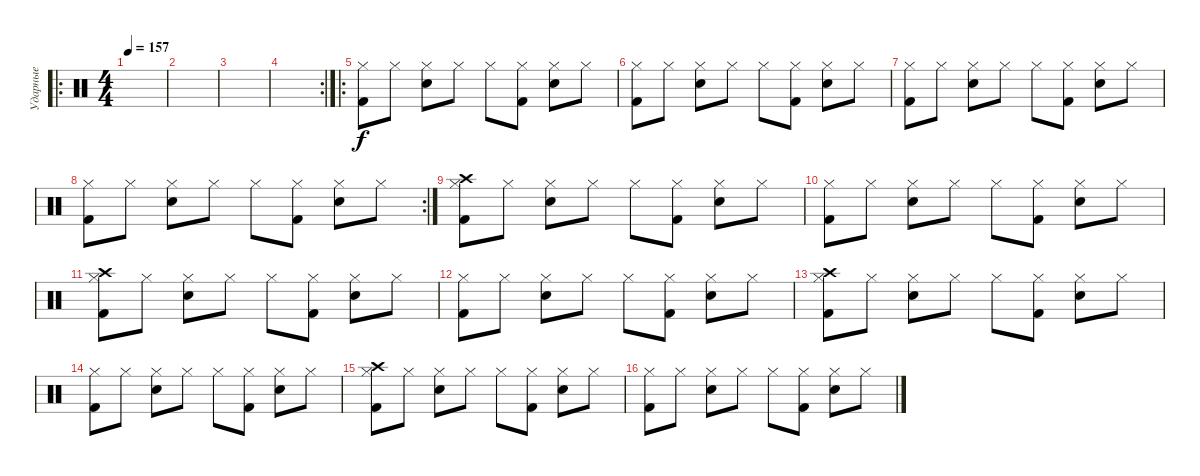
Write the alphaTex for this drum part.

\track ("Ударные" "Ударные") {instrument percussion}
\staff {score}
\articulation defaults
\ro
\ts (4 4)
\tempo 157
\clef neutral
\ks c
|
|
|
\rc 2
|
\ro
("Hi-Hat (closed)" "Kick (hit) 2").8 "Hi-Hat (closed)".8 ("Hi-Hat (closed)" "Electric Snare (hit)").8 "Hi-Hat (closed)".8 "Hi-Hat (closed)".8 ("Hi-Hat (closed)" "Kick (hit) 2").8 ("Hi-Hat (closed)" "Electric Snare (hit)").8 "Hi-Hat (closed)".8 |
("Hi-Hat (closed)" "Kick (hit) 2").8 "Hi-Hat (closed)".8 ("Hi-Hat (closed)" "Electric Snare (hit)").8 "Hi-Hat (closed)".8 "Hi-Hat (closed)".8 ("Hi-Hat (closed)" "Kick (hit) 2").8 ("Hi-Hat (closed)" "Electric Snare (hit)").8 "Hi-Hat (closed)".8 |
("Hi-Hat (closed)" "Kick (hit) 2").8 "Hi-Hat (closed)".8 ("Hi-Hat (closed)" "Electric Snare (hit)").8 "Hi-Hat (closed)".8 "Hi-Hat (closed)".8 ("Hi-Hat (closed)" "Kick (hit) 2").8 ("Hi-Hat (closed)" "Electric Snare (hit)").8 "Hi-Hat (closed)".8 |
\rc 2
("Hi-Hat (closed)" "Kick (hit) 2").8 "Hi-Hat (closed)".8 ("Hi-Hat (closed)" "Electric Snare (hit)").8 "Hi-Hat (closed)".8 "Hi-Hat (closed)".8 ("Hi-Hat (closed)" "Kick (hit) 2").8 ("Hi-Hat (closed)" "Electric Snare (hit)").8 "Hi-Hat (closed)".8 |
("Hi-Hat (closed)" "Crash high (hit)" "Kick (hit) 2").8 "Hi-Hat (closed)".8 ("Hi-Hat (closed)" "Electric Snare (hit)").8 "Hi-Hat (closed)".8 "Hi-Hat (closed)".8 ("Hi-Hat (closed)" "Kick (hit) 2").8 ("Hi-Hat (closed)" "Electric Snare (hit)").8 "Hi-Hat (closed)".8 |
("Hi-Hat (closed)" "Kick (hit) 2").8 "Hi-Hat (closed)".8 ("Hi-Hat (closed)" "Electric Snare (hit)").8 "Hi-Hat (closed)".8 "Hi-Hat (closed)".8 ("Hi-Hat (closed)" "Kick (hit) 2").8 ("Hi-Hat (closed)" "Electric Snare (hit)").8 "Hi-Hat (closed)".8 |
("Hi-Hat (closed)" "Kick (hit) 2" "Crash high (hit)").8 "Hi-Hat (closed)".8 ("Hi-Hat (closed)" "Electric Snare (hit)").8 "Hi-Hat (closed)".8 "Hi-Hat (closed)".8 ("Hi-Hat (closed)" "Kick (hit) 2").8 ("Hi-Hat (closed)" "Electric Snare (hit)").8 "Hi-Hat (closed)".8 |
("Hi-Hat (closed)" "Kick (hit) 2").8 "Hi-Hat (closed)".8 ("Hi-Hat (closed)" "Electric Snare (hit)").8 "Hi-Hat (closed)".8 "Hi-Hat (closed)".8 ("Hi-Hat (closed)" "Kick (hit) 2").8 ("Hi-Hat (closed)" "Electric Snare (hit)").8 "Hi-Hat (closed)".8 |
("Hi-Hat (closed)" "Kick (hit) 2" "Crash high (hit)").8 "Hi-Hat (closed)".8 ("Hi-Hat (closed)" "Electric Snare (hit)").8 "Hi-Hat (closed)".8 "Hi-Hat (closed)".8 ("Hi-Hat (closed)" "Kick (hit) 2").8 ("Hi-Hat (closed)" "Electric Snare (hit)").8 "Hi-Hat (closed)".8 |
("Hi-Hat (closed)" "Kick (hit) 2").8 "Hi-Hat (closed)".8 ("Hi-Hat (closed)" "Electric Snare (hit)").8 "Hi-Hat (closed)".8 "Hi-Hat (closed)".8 ("Hi-Hat (closed)" "Kick (hit) 2").8 ("Hi-Hat (closed)" "Electric Snare (hit)").8 "Hi-Hat (closed)".8 |
("Hi-Hat (closed)" "Kick (hit) 2" "Crash high (hit)").8 "Hi-Hat (closed)".8 ("Hi-Hat (closed)" "Electric Snare (hit)").8 "Hi-Hat (closed)".8 "Hi-Hat (closed)".8 ("Hi-Hat (closed)" "Kick (hit) 2").8 ("Hi-Hat (closed)" "Electric Snare (hit)").8 "Hi-Hat (closed)".8 |
("Hi-Hat (closed)" "Kick (hit) 2").8 "Hi-Hat (closed)".8 ("Hi-Hat (closed)" "Electric Snare (hit)").8 "Hi-Hat (closed)".8 "Hi-Hat (closed)".8 ("Hi-Hat (closed)" "Kick (hit) 2").8 ("Hi-Hat (closed)" "Electric Snare (hit)").8 "Hi-Hat (closed)".8
